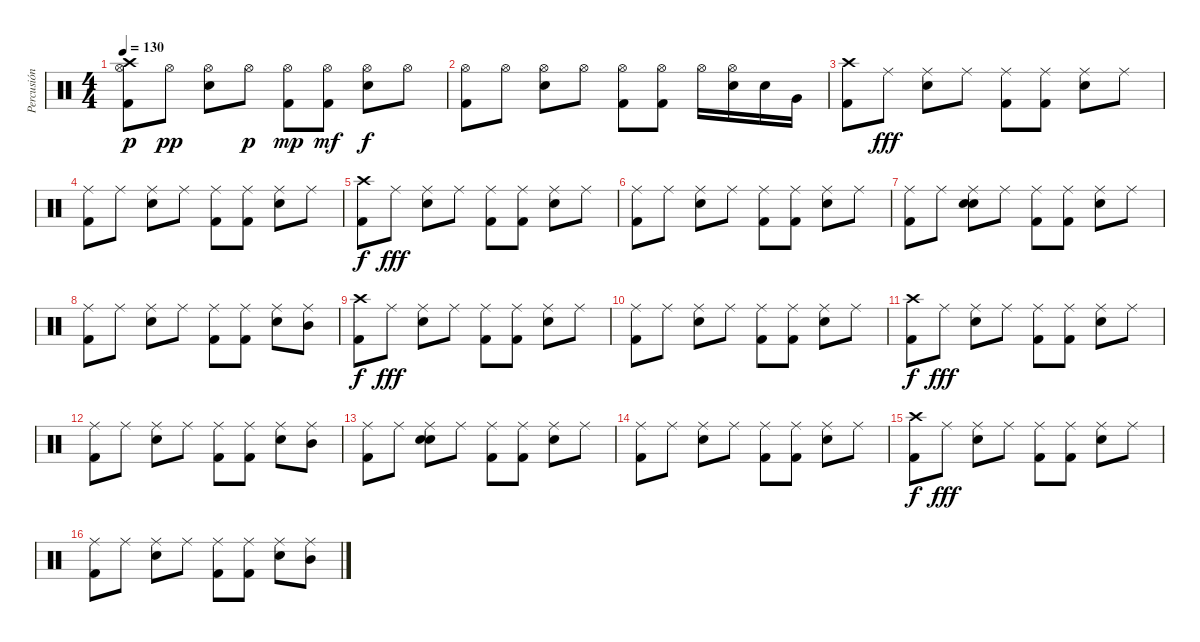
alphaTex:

\track ("Percusión" "Percusión") {instrument percussion}
\staff {score}
\articulation defaults
\ts (4 4)
\tempo 130
\clef neutral
\ks c
("Hi-Hat (open)" "Kick (hit) 2" "Crash high (hit)").8{dy p} "Hi-Hat (open)".8{dy pp} ("Hi-Hat (open)" "Electric Snare (hit)").8 "Hi-Hat (open)".8{dy p} ("Hi-Hat (open)" "Kick (hit) 2").8{dy mp} ("Hi-Hat (open)" "Kick (hit) 2").8{dy mf} ("Hi-Hat (open)" "Electric Snare (hit)").8{dy f} "Hi-Hat (open)".8 |
("Hi-Hat (open)" "Kick (hit) 2").8 "Hi-Hat (open)".8 ("Hi-Hat (open)" "Electric Snare (hit)").8 "Hi-Hat (open)".8 ("Hi-Hat (open)" "Kick (hit) 2").8 ("Hi-Hat (open)" "Kick (hit) 2").8 "Hi-Hat (open)".16 ("Hi-Hat (open)" "Electric Snare (hit)").16 "Electric Snare (hit)".16 "Very Low Tom (hit)".16 |
("Kick (hit) 2" "Crash high (hit)").8 "Ride (middle)".8{dy fff} ("Ride (middle)" "Electric Snare (hit)").8 "Ride (middle)".8 ("Ride (middle)" "Kick (hit) 2").8 ("Ride (middle)" "Kick (hit) 2").8 ("Ride (middle)" "Electric Snare (hit)").8 "Ride (middle)".8 |
("Ride (middle)" "Kick (hit) 2").8 "Ride (middle)".8 ("Ride (middle)" "Electric Snare (hit)").8 "Ride (middle)".8 ("Ride (middle)" "Kick (hit) 2").8 ("Ride (middle)" "Kick (hit) 2").8 ("Ride (middle)" "Electric Snare (hit)").8 "Ride (middle)".8 |
("Kick (hit) 2" "Crash high (hit)").8{dy f} "Ride (middle)".8{dy fff} ("Ride (middle)" "Electric Snare (hit)").8 "Ride (middle)".8 ("Ride (middle)" "Kick (hit) 2").8 ("Ride (middle)" "Kick (hit) 2").8 ("Ride (middle)" "Electric Snare (hit)").8 "Ride (middle)".8 |
("Ride (middle)" "Kick (hit) 2").8 "Ride (middle)".8 ("Ride (middle)" "Electric Snare (hit)").8 "Ride (middle)".8 ("Ride (middle)" "Kick (hit) 2").8 ("Ride (middle)" "Kick (hit) 2").8 ("Ride (middle)" "Electric Snare (hit)").8 "Ride (middle)".8 |
("Ride (middle)" "Kick (hit) 2").8 "Ride (middle)".8 ("Ride (middle)" "Electric Snare (hit)" "Snare (hit)").8 "Ride (middle)".8 ("Ride (middle)" "Kick (hit) 2").8 ("Ride (middle)" "Kick (hit) 2").8 ("Ride (middle)" "Electric Snare (hit)").8 "Ride (middle)".8 |
("Ride (middle)" "Kick (hit) 2").8 "Ride (middle)".8 ("Ride (middle)" "Electric Snare (hit)").8 "Ride (middle)".8 ("Ride (middle)" "Kick (hit) 2").8 ("Ride (middle)" "Kick (hit) 2").8 ("Ride (middle)" "Electric Snare (hit)").8 ("Ride (middle)" "Mid Tom (hit)").8{balance 16} |
("Kick (hit) 2" "Crash high (hit)").8{dy f balance 8} "Ride (middle)".8{dy fff} ("Ride (middle)" "Electric Snare (hit)").8 "Ride (middle)".8 ("Ride (middle)" "Kick (hit) 2").8 ("Ride (middle)" "Kick (hit) 2").8 ("Ride (middle)" "Electric Snare (hit)").8 "Ride (middle)".8 |
("Ride (middle)" "Kick (hit) 2").8 "Ride (middle)".8 ("Ride (middle)" "Electric Snare (hit)").8 "Ride (middle)".8 ("Ride (middle)" "Kick (hit) 2").8 ("Ride (middle)" "Kick (hit) 2").8 ("Ride (middle)" "Electric Snare (hit)").8 "Ride (middle)".8 |
("Kick (hit) 2" "Crash high (hit)").8{dy f} "Ride (middle)".8{dy fff} ("Ride (middle)" "Electric Snare (hit)").8 "Ride (middle)".8 ("Ride (middle)" "Kick (hit) 2").8 ("Ride (middle)" "Kick (hit) 2").8 ("Ride (middle)" "Electric Snare (hit)").8 "Ride (middle)".8 |
("Ride (middle)" "Kick (hit) 2").8 "Ride (middle)".8 ("Ride (middle)" "Electric Snare (hit)").8 "Ride (middle)".8 ("Ride (middle)" "Kick (hit) 2").8 ("Ride (middle)" "Kick (hit) 2").8 ("Ride (middle)" "Electric Snare (hit)").8 ("Ride (middle)" "Mid Tom (hit)").8{balance 16} |
("Ride (middle)" "Kick (hit) 2").8{balance 8} "Ride (middle)".8 ("Ride (middle)" "Electric Snare (hit)" "Snare (hit)").8 "Ride (middle)".8 ("Ride (middle)" "Kick (hit) 2").8 ("Ride (middle)" "Kick (hit) 2").8 ("Ride (middle)" "Electric Snare (hit)").8 "Ride (middle)".8 |
("Ride (middle)" "Kick (hit) 2").8 "Ride (middle)".8 ("Ride (middle)" "Electric Snare (hit)").8 "Ride (middle)".8 ("Ride (middle)" "Kick (hit) 2").8 ("Ride (middle)" "Kick (hit) 2").8 ("Ride (middle)" "Electric Snare (hit)").8 "Ride (middle)".8 |
("Kick (hit) 2" "Crash high (hit)").8{dy f} "Ride (middle)".8{dy fff} ("Ride (middle)" "Electric Snare (hit)").8 "Ride (middle)".8 ("Ride (middle)" "Kick (hit) 2").8 ("Ride (middle)" "Kick (hit) 2").8 ("Ride (middle)" "Electric Snare (hit)").8 "Ride (middle)".8 |
("Ride (middle)" "Kick (hit) 2").8 "Ride (middle)".8 ("Ride (middle)" "Electric Snare (hit)").8 "Ride (middle)".8 ("Ride (middle)" "Kick (hit) 2").8 ("Ride (middle)" "Kick (hit) 2").8 ("Ride (middle)" "Electric Snare (hit)").8 ("Ride (middle)" "Mid Tom (hit)").8{balance 16}
